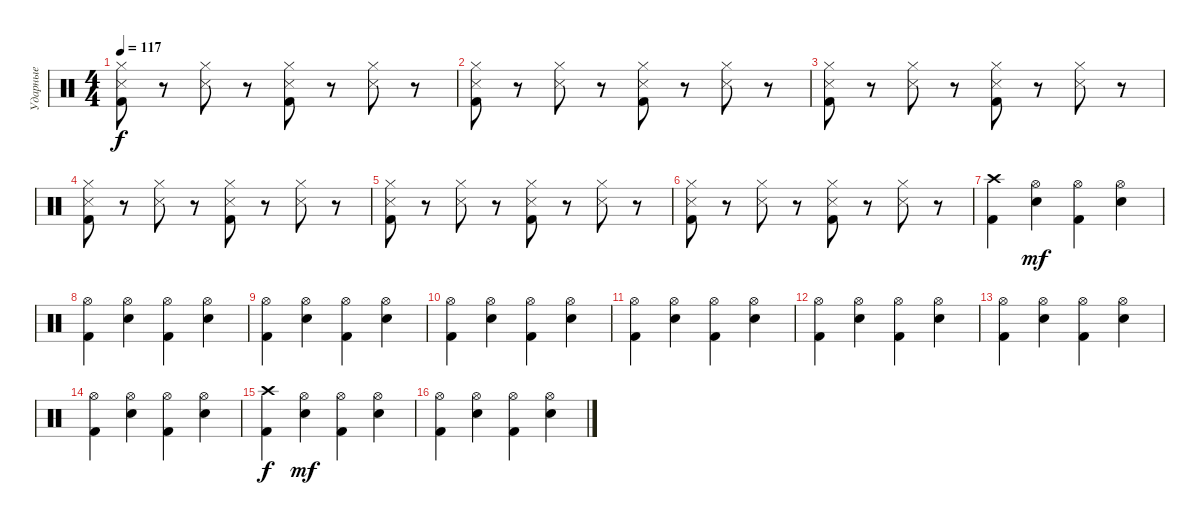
\track ("Ударные" "Ударные") {instrument percussion}
\staff {score}
\articulation defaults
\ts (4 4)
\tempo 117
\clef neutral
\ks c
("Hi-Hat (closed)" "Snare (side stick) 3" "Kick (hit) 2").8{dy f} r.8 ("Hi-Hat (closed)" "Snare (side stick) 3").8 r.8 ("Hi-Hat (closed)" "Snare (side stick) 3" "Kick (hit) 2").8 r.8 ("Hi-Hat (closed)" "Snare (side stick) 3").8 r.8 |
("Hi-Hat (closed)" "Snare (side stick) 3" "Kick (hit) 2").8 r.8 ("Hi-Hat (closed)" "Snare (side stick) 3").8 r.8 ("Hi-Hat (closed)" "Snare (side stick) 3" "Kick (hit) 2").8 r.8 ("Hi-Hat (closed)" "Snare (side stick) 3").8 r.8 |
("Hi-Hat (closed)" "Snare (side stick) 3" "Kick (hit) 2").8 r.8 ("Hi-Hat (closed)" "Snare (side stick) 3").8 r.8 ("Hi-Hat (closed)" "Snare (side stick) 3" "Kick (hit) 2").8 r.8 ("Hi-Hat (closed)" "Snare (side stick) 3").8 r.8 |
("Hi-Hat (closed)" "Snare (side stick) 3" "Kick (hit) 2").8 r.8 ("Hi-Hat (closed)" "Snare (side stick) 3").8 r.8 ("Hi-Hat (closed)" "Snare (side stick) 3" "Kick (hit) 2").8 r.8 ("Hi-Hat (closed)" "Snare (side stick) 3").8 r.8 |
("Hi-Hat (closed)" "Snare (side stick) 3" "Kick (hit) 2").8 r.8 ("Hi-Hat (closed)" "Snare (side stick) 3").8 r.8 ("Hi-Hat (closed)" "Snare (side stick) 3" "Kick (hit) 2").8 r.8 ("Hi-Hat (closed)" "Snare (side stick) 3").8 r.8 |
("Hi-Hat (closed)" "Snare (side stick) 3" "Kick (hit) 2").8 r.8 ("Hi-Hat (closed)" "Snare (side stick) 3").8 r.8 ("Hi-Hat (closed)" "Snare (side stick) 3" "Kick (hit) 2").8 r.8 ("Hi-Hat (closed)" "Snare (side stick) 3").8 r.8 |
("Crash high (hit)" "Kick (hit) 2").4 ("Hi-Hat (open)" "Electric Snare (hit)").4{dy mf} ("Hi-Hat (open)" "Kick (hit) 2").4 ("Hi-Hat (open)" "Electric Snare (hit)").4 |
("Hi-Hat (open)" "Kick (hit) 2").4 ("Hi-Hat (open)" "Electric Snare (hit)").4 ("Hi-Hat (open)" "Kick (hit) 2").4 ("Hi-Hat (open)" "Electric Snare (hit)").4 |
("Hi-Hat (open)" "Kick (hit) 2").4 ("Hi-Hat (open)" "Electric Snare (hit)").4 ("Hi-Hat (open)" "Kick (hit) 2").4 ("Hi-Hat (open)" "Electric Snare (hit)").4 |
("Hi-Hat (open)" "Kick (hit) 2").4 ("Hi-Hat (open)" "Electric Snare (hit)").4 ("Hi-Hat (open)" "Kick (hit) 2").4 ("Hi-Hat (open)" "Electric Snare (hit)").4 |
("Hi-Hat (open)" "Kick (hit) 2").4 ("Hi-Hat (open)" "Electric Snare (hit)").4 ("Hi-Hat (open)" "Kick (hit) 2").4 ("Hi-Hat (open)" "Electric Snare (hit)").4 |
("Hi-Hat (open)" "Kick (hit) 2").4 ("Hi-Hat (open)" "Electric Snare (hit)").4 ("Hi-Hat (open)" "Kick (hit) 2").4 ("Hi-Hat (open)" "Electric Snare (hit)").4 |
("Hi-Hat (open)" "Kick (hit) 2").4 ("Hi-Hat (open)" "Electric Snare (hit)").4 ("Hi-Hat (open)" "Kick (hit) 2").4 ("Hi-Hat (open)" "Electric Snare (hit)").4 |
("Hi-Hat (open)" "Kick (hit) 2").4 ("Hi-Hat (open)" "Electric Snare (hit)").4 ("Hi-Hat (open)" "Kick (hit) 2").4 ("Hi-Hat (open)" "Electric Snare (hit)").4 |
("Crash high (hit)" "Kick (hit) 2").4{dy f} ("Hi-Hat (open)" "Electric Snare (hit)").4{dy mf} ("Hi-Hat (open)" "Kick (hit) 2").4 ("Hi-Hat (open)" "Electric Snare (hit)").4 |
("Hi-Hat (open)" "Kick (hit) 2").4 ("Hi-Hat (open)" "Electric Snare (hit)").4 ("Hi-Hat (open)" "Kick (hit) 2").4 ("Hi-Hat (open)" "Electric Snare (hit)").4
